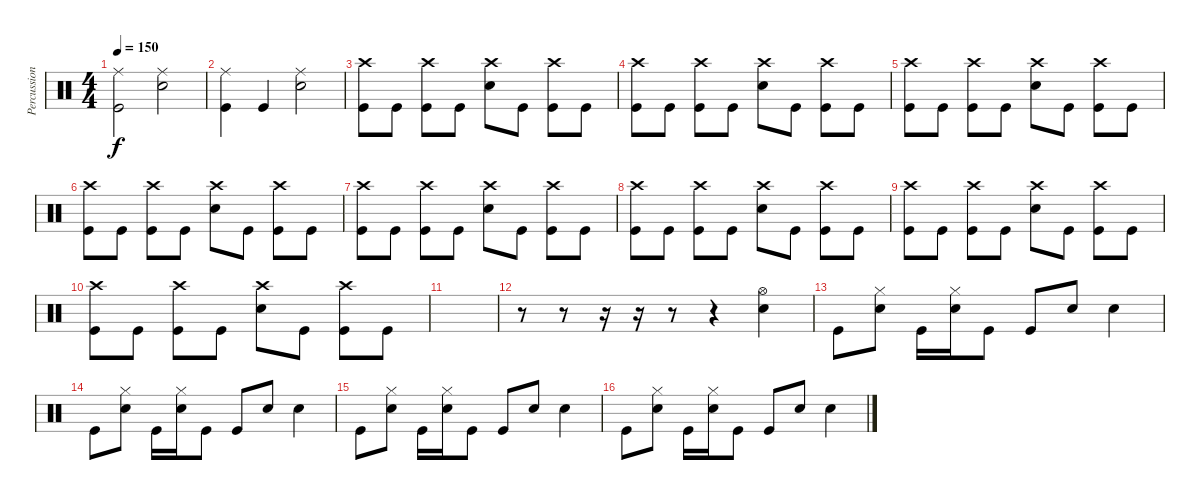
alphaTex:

\track ("Percussion" "Percussion") {instrument percussion}
\staff {score}
\articulation defaults
\ts (4 4)
\tempo 150
\clef neutral
\ks c
("Ride (middle)" "Kick (hit)").2{dy f} ("Ride (middle)" "Electric Snare (hit)").2 |
("Ride (middle)" "Kick (hit)").4 "Kick (hit)".4 ("Ride (middle)" "Electric Snare (hit)").2 |
("Crash high (hit)" "Kick (hit)").8 "Kick (hit)".8 ("Crash high (hit)" "Kick (hit)").8 "Kick (hit)".8 ("Crash high (hit)" "Electric Snare (hit)").8 "Kick (hit)".8 ("Crash high (hit)" "Kick (hit)").8 "Kick (hit)".8 |
("Crash high (hit)" "Kick (hit)").8 "Kick (hit)".8 ("Crash high (hit)" "Kick (hit)").8 "Kick (hit)".8 ("Crash high (hit)" "Electric Snare (hit)").8 "Kick (hit)".8 ("Crash high (hit)" "Kick (hit)").8 "Kick (hit)".8 |
("Crash high (hit)" "Kick (hit)").8 "Kick (hit)".8 ("Crash high (hit)" "Kick (hit)").8 "Kick (hit)".8 ("Crash high (hit)" "Electric Snare (hit)").8 "Kick (hit)".8 ("Crash high (hit)" "Kick (hit)").8 "Kick (hit)".8 |
("Crash high (hit)" "Kick (hit)").8 "Kick (hit)".8 ("Crash high (hit)" "Kick (hit)").8 "Kick (hit)".8 ("Crash high (hit)" "Electric Snare (hit)").8 "Kick (hit)".8 ("Crash high (hit)" "Kick (hit)").8 "Kick (hit)".8 |
("Crash high (hit)" "Kick (hit)").8 "Kick (hit)".8 ("Crash high (hit)" "Kick (hit)").8 "Kick (hit)".8 ("Crash high (hit)" "Electric Snare (hit)").8 "Kick (hit)".8 ("Crash high (hit)" "Kick (hit)").8 "Kick (hit)".8 |
("Crash high (hit)" "Kick (hit)").8 "Kick (hit)".8 ("Crash high (hit)" "Kick (hit)").8 "Kick (hit)".8 ("Crash high (hit)" "Electric Snare (hit)").8 "Kick (hit)".8 ("Crash high (hit)" "Kick (hit)").8 "Kick (hit)".8 |
("Crash high (hit)" "Kick (hit)").8 "Kick (hit)".8 ("Crash high (hit)" "Kick (hit)").8 "Kick (hit)".8 ("Crash high (hit)" "Electric Snare (hit)").8 "Kick (hit)".8 ("Crash high (hit)" "Kick (hit)").8 "Kick (hit)".8 |
("Crash high (hit)" "Kick (hit)").8 "Kick (hit)".8 ("Crash high (hit)" "Kick (hit)").8 "Kick (hit)".8 ("Crash high (hit)" "Electric Snare (hit)").8 "Kick (hit)".8 ("Crash high (hit)" "Kick (hit)").8 "Kick (hit)".8 |
|
r.8 r.8 r.16 r.16 r.8 r.4 ("Hi-Hat (open)" "Electric Snare (hit)").4 |
"Kick (hit)".8 ("Hi-Hat (closed)" "Electric Snare (hit)").8 "Kick (hit)".16 ("Hi-Hat (closed)" "Electric Snare (hit)").16 "Kick (hit)".8 "Kick (hit)".8 "Electric Snare (hit)".8 "Electric Snare (hit)".4 |
"Kick (hit)".8 ("Hi-Hat (closed)" "Electric Snare (hit)").8 "Kick (hit)".16 ("Hi-Hat (closed)" "Electric Snare (hit)").16 "Kick (hit)".8 "Kick (hit)".8 "Electric Snare (hit)".8 "Electric Snare (hit)".4 |
"Kick (hit)".8 ("Hi-Hat (closed)" "Electric Snare (hit)").8 "Kick (hit)".16 ("Hi-Hat (closed)" "Electric Snare (hit)").16 "Kick (hit)".8 "Kick (hit)".8 "Electric Snare (hit)".8 "Electric Snare (hit)".4 |
"Kick (hit)".8 ("Hi-Hat (closed)" "Electric Snare (hit)").8 "Kick (hit)".16 ("Hi-Hat (closed)" "Electric Snare (hit)").16 "Kick (hit)".8 "Kick (hit)".8 "Electric Snare (hit)".8 "Electric Snare (hit)".4
